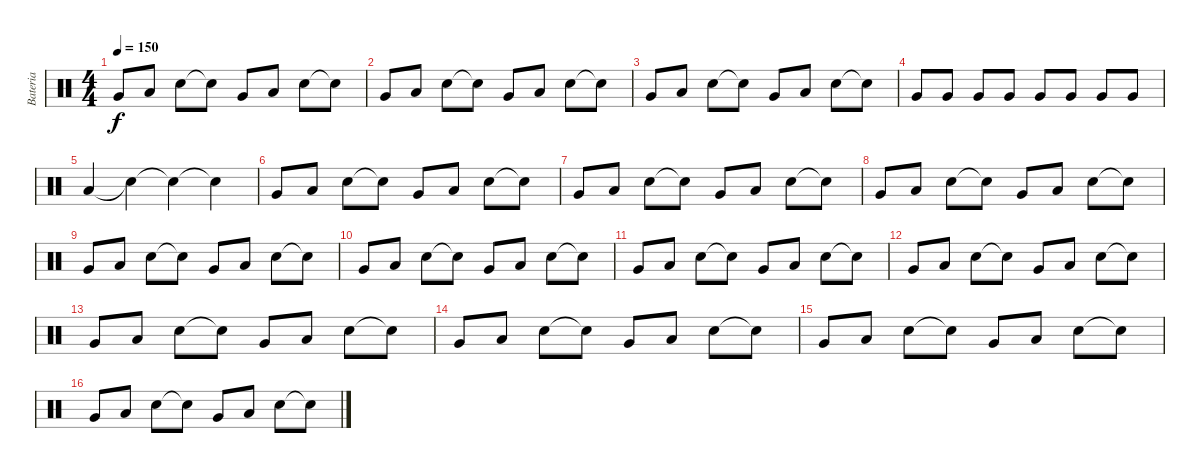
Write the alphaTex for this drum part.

\track ("Bateria" "Bateria") {instrument percussion}
\staff {score}
\articulation defaults
\ts (4 4)
\tempo 150
\clef neutral
\ks c "Very Low Tom (hit)".8{dy f} "Low Floor Tom (hit)".8 "Snare (hit) 2".8 "Snare (hit)"{t}.8 "Very Low Tom (hit)".8 "Low Floor Tom (hit)".8 "Snare (hit) 2".8 "Snare (hit)"{t}.8
|
"Very Low Tom (hit)".8 "Low Floor Tom (hit)".8 "Snare (hit) 2".8 "Snare (hit)"{t}.8 "Very Low Tom (hit)".8 "Low Floor Tom (hit)".8 "Snare (hit) 2".8 "Snare (hit)"{t}.8 |
"Very Low Tom (hit)".8 "Low Floor Tom (hit)".8 "Snare (hit) 2".8 "Snare (hit)"{t}.8 "Very Low Tom (hit)".8 "Low Floor Tom (hit)".8 "Snare (hit) 2".8 "Snare (hit)"{t}.8 |
"Very Low Tom (hit)".8 "Very Low Tom (hit)".8 "Very Low Tom (hit)".8 "Very Low Tom (hit)".8 "Very Low Tom (hit)".8 "Very Low Tom (hit)".8 "Very Low Tom (hit)".8 "Very Low Tom (hit)".8 |
"Low Tom (hit)".4 "Snare (hit)"{t}.4 "Snare (hit)"{t}.4 "Snare (hit)"{t}.4 |
"Very Low Tom (hit)".8 "Low Floor Tom (hit)".8 "Snare (hit) 2".8 "Snare (hit)"{t}.8 "Very Low Tom (hit)".8 "Low Floor Tom (hit)".8 "Snare (hit) 2".8 "Snare (hit)"{t}.8 |
"Very Low Tom (hit)".8 "Low Floor Tom (hit)".8 "Snare (hit) 2".8 "Snare (hit)"{t}.8 "Very Low Tom (hit)".8 "Low Floor Tom (hit)".8 "Snare (hit) 2".8 "Snare (hit)"{t}.8 |
"Very Low Tom (hit)".8 "Low Floor Tom (hit)".8 "Snare (hit) 2".8 "Snare (hit)"{t}.8 "Very Low Tom (hit)".8 "Low Floor Tom (hit)".8 "Snare (hit) 2".8 "Snare (hit)"{t}.8 |
"Very Low Tom (hit)".8 "Low Floor Tom (hit)".8 "Snare (hit) 2".8 "Snare (hit)"{t}.8 "Very Low Tom (hit)".8 "Low Floor Tom (hit)".8 "Snare (hit) 2".8 "Snare (hit)"{t}.8 |
"Very Low Tom (hit)".8 "Low Floor Tom (hit)".8 "Snare (hit) 2".8 "Snare (hit)"{t}.8 "Very Low Tom (hit)".8 "Low Floor Tom (hit)".8 "Snare (hit) 2".8 "Snare (hit)"{t}.8 |
"Very Low Tom (hit)".8 "Low Floor Tom (hit)".8 "Snare (hit) 2".8 "Snare (hit)"{t}.8 "Very Low Tom (hit)".8 "Low Floor Tom (hit)".8 "Snare (hit) 2".8 "Snare (hit)"{t}.8 |
"Very Low Tom (hit)".8 "Low Floor Tom (hit)".8 "Snare (hit) 2".8 "Snare (hit)"{t}.8 "Very Low Tom (hit)".8 "Low Floor Tom (hit)".8 "Snare (hit) 2".8 "Snare (hit)"{t}.8 |
"Very Low Tom (hit)".8 "Low Floor Tom (hit)".8 "Snare (hit) 2".8 "Snare (hit)"{t}.8 "Very Low Tom (hit)".8 "Low Floor Tom (hit)".8 "Snare (hit) 2".8 "Snare (hit)"{t}.8 |
"Very Low Tom (hit)".8 "Low Floor Tom (hit)".8 "Snare (hit) 2".8 "Snare (hit)"{t}.8 "Very Low Tom (hit)".8 "Low Floor Tom (hit)".8 "Snare (hit) 2".8 "Snare (hit)"{t}.8 |
"Very Low Tom (hit)".8 "Low Floor Tom (hit)".8 "Snare (hit) 2".8 "Snare (hit)"{t}.8 "Very Low Tom (hit)".8 "Low Floor Tom (hit)".8 "Snare (hit) 2".8 "Snare (hit)"{t}.8 |
"Very Low Tom (hit)".8 "Low Floor Tom (hit)".8 "Snare (hit) 2".8 "Snare (hit)"{t}.8 "Very Low Tom (hit)".8 "Low Floor Tom (hit)".8 "Snare (hit) 2".8 "Snare (hit)"{t}.8
